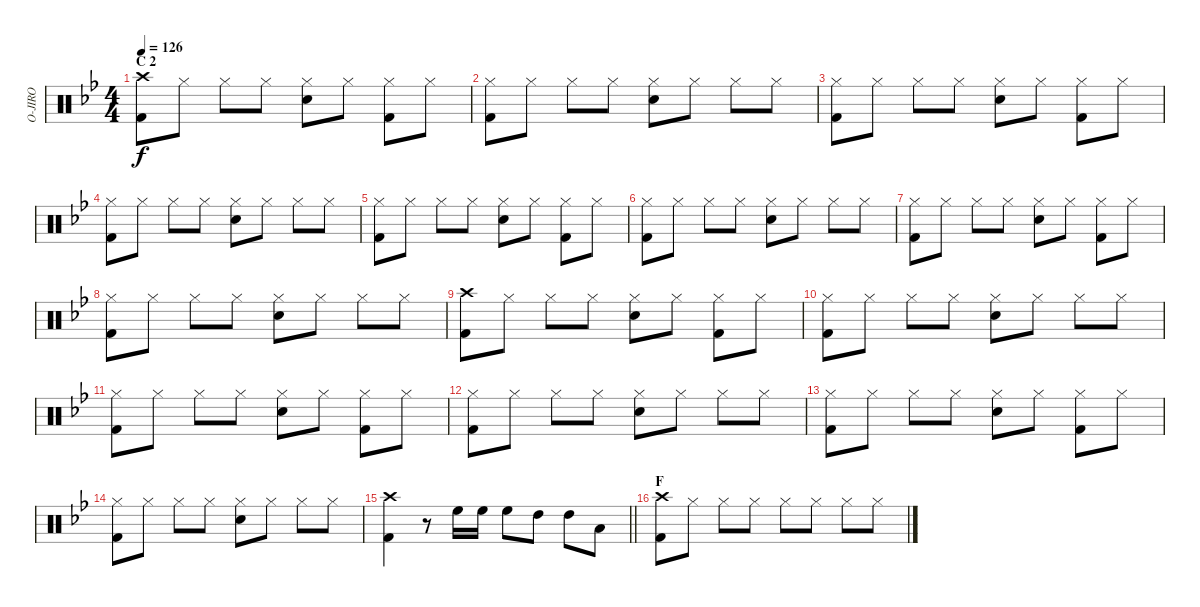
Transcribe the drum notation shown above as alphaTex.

\track ("O-JIRO" "O-JIRO") {instrument percussion}
\staff {score}
\articulation defaults
\ts (4 4)
\section ("" "C 2")
\tempo 126
\clef neutral
\ks bb
("Crash high (hit)" "Kick (hit) 2").8{dy f} "Hi-Hat (closed)".8 "Hi-Hat (closed)".8 "Hi-Hat (closed)".8 ("Hi-Hat (closed)" "Snare (hit) 2").8 "Hi-Hat (closed)".8 ("Hi-Hat (closed)" "Kick (hit) 2").8 "Hi-Hat (closed)".8 |
("Hi-Hat (closed)" "Kick (hit) 2").8 "Hi-Hat (closed)".8 "Hi-Hat (closed)".8 "Hi-Hat (closed)".8 ("Hi-Hat (closed)" "Snare (hit) 2").8 "Hi-Hat (closed)".8 "Hi-Hat (closed)".8 "Hi-Hat (closed)".8 |
("Hi-Hat (closed)" "Kick (hit) 2").8 "Hi-Hat (closed)".8 "Hi-Hat (closed)".8 "Hi-Hat (closed)".8 ("Hi-Hat (closed)" "Snare (hit) 2").8 "Hi-Hat (closed)".8 ("Hi-Hat (closed)" "Kick (hit) 2").8 "Hi-Hat (closed)".8 |
("Hi-Hat (closed)" "Kick (hit) 2").8 "Hi-Hat (closed)".8 "Hi-Hat (closed)".8 "Hi-Hat (closed)".8 ("Hi-Hat (closed)" "Snare (hit) 2").8 "Hi-Hat (closed)".8 "Hi-Hat (closed)".8 "Hi-Hat (closed)".8 |
("Hi-Hat (closed)" "Kick (hit) 2").8 "Hi-Hat (closed)".8 "Hi-Hat (closed)".8 "Hi-Hat (closed)".8 ("Hi-Hat (closed)" "Snare (hit) 2").8 "Hi-Hat (closed)".8 ("Hi-Hat (closed)" "Kick (hit) 2").8 "Hi-Hat (closed)".8 |
("Hi-Hat (closed)" "Kick (hit) 2").8 "Hi-Hat (closed)".8 "Hi-Hat (closed)".8 "Hi-Hat (closed)".8 ("Hi-Hat (closed)" "Snare (hit) 2").8 "Hi-Hat (closed)".8 "Hi-Hat (closed)".8 "Hi-Hat (closed)".8 |
("Hi-Hat (closed)" "Kick (hit) 2").8 "Hi-Hat (closed)".8 "Hi-Hat (closed)".8 "Hi-Hat (closed)".8 ("Hi-Hat (closed)" "Snare (hit) 2").8 "Hi-Hat (closed)".8 ("Hi-Hat (closed)" "Kick (hit) 2").8 "Hi-Hat (closed)".8 |
("Hi-Hat (closed)" "Kick (hit) 2").8 "Hi-Hat (closed)".8 "Hi-Hat (closed)".8 "Hi-Hat (closed)".8 ("Hi-Hat (closed)" "Snare (hit) 2").8 "Hi-Hat (closed)".8 "Hi-Hat (closed)".8 "Hi-Hat (closed)".8 |
("Crash high (hit)" "Kick (hit) 2").8 "Hi-Hat (closed)".8 "Hi-Hat (closed)".8 "Hi-Hat (closed)".8 ("Hi-Hat (closed)" "Snare (hit) 2").8 "Hi-Hat (closed)".8 ("Hi-Hat (closed)" "Kick (hit) 2").8 "Hi-Hat (closed)".8 |
("Hi-Hat (closed)" "Kick (hit) 2").8 "Hi-Hat (closed)".8 "Hi-Hat (closed)".8 "Hi-Hat (closed)".8 ("Hi-Hat (closed)" "Snare (hit) 2").8 "Hi-Hat (closed)".8 "Hi-Hat (closed)".8 "Hi-Hat (closed)".8 |
("Hi-Hat (closed)" "Kick (hit) 2").8 "Hi-Hat (closed)".8 "Hi-Hat (closed)".8 "Hi-Hat (closed)".8 ("Hi-Hat (closed)" "Snare (hit) 2").8 "Hi-Hat (closed)".8 ("Hi-Hat (closed)" "Kick (hit) 2").8 "Hi-Hat (closed)".8 |
("Hi-Hat (closed)" "Kick (hit) 2").8 "Hi-Hat (closed)".8 "Hi-Hat (closed)".8 "Hi-Hat (closed)".8 ("Hi-Hat (closed)" "Snare (hit) 2").8 "Hi-Hat (closed)".8 "Hi-Hat (closed)".8 "Hi-Hat (closed)".8 |
("Hi-Hat (closed)" "Kick (hit) 2").8 "Hi-Hat (closed)".8 "Hi-Hat (closed)".8 "Hi-Hat (closed)".8 ("Hi-Hat (closed)" "Snare (hit) 2").8 "Hi-Hat (closed)".8 ("Hi-Hat (closed)" "Kick (hit) 2").8 "Hi-Hat (closed)".8 |
("Hi-Hat (closed)" "Kick (hit) 2").8 "Hi-Hat (closed)".8 "Hi-Hat (closed)".8 "Hi-Hat (closed)".8 ("Hi-Hat (closed)" "Snare (hit) 2").8 "Hi-Hat (closed)".8 "Hi-Hat (closed)".8 "Hi-Hat (closed)".8 |
\barLineRight lightlight
("Crash high (hit)" "Kick (hit) 2").4 r.8 "High Floor Tom (hit)".16 "High Floor Tom (hit)".16 "High Floor Tom (hit)".8 "High Tom (hit)".8 "High Tom (hit)".8 "Low Tom (hit)".8 |
\section ("" "F")
("Crash high (hit)" "Kick (hit) 2").8 "Hi-Hat (closed)".8 "Hi-Hat (closed)".8 "Hi-Hat (closed)".8 "Hi-Hat (closed)".8 "Hi-Hat (closed)".8 "Hi-Hat (closed)".8 "Hi-Hat (closed)".8
